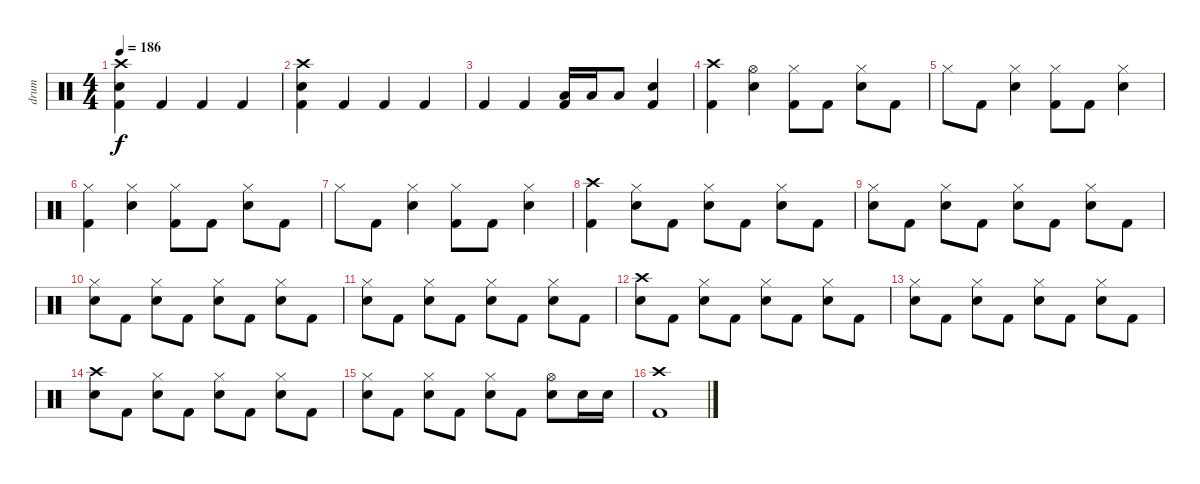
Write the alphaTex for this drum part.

\track ("drum" "drum") {instrument percussion}
\staff {score}
\articulation defaults
\ts (4 4)
\tempo 186
\clef neutral
\ks c
("Crash high (hit)" "Snare (hit) 2" "Kick (hit) 2").4{dy f} "Kick (hit) 2".4 "Kick (hit) 2".4 "Kick (hit) 2".4 |
("Crash high (hit)" "Snare (hit) 2" "Kick (hit) 2").4 "Kick (hit) 2".4 "Kick (hit) 2".4 "Kick (hit) 2".4 |
"Kick (hit) 2".4 "Kick (hit) 2".4 ("Low Floor Tom (hit)" "Kick (hit) 2").16 "Low Floor Tom (hit)".16 "Low Floor Tom (hit)".8 ("Snare (hit) 2" "Kick (hit) 2").4 |
("Crash high (hit)" "Kick (hit) 2").4 ("Hi-Hat (open)" "Snare (hit) 2").4 ("Hi-Hat (closed)" "Kick (hit) 2").8 "Kick (hit) 2".8 ("Hi-Hat (closed)" "Snare (hit) 2").8 "Kick (hit) 2".8 |
"Hi-Hat (closed)".8 "Kick (hit) 2".8 ("Hi-Hat (closed)" "Snare (hit) 2").4 ("Hi-Hat (closed)" "Kick (hit) 2").8 "Kick (hit) 2".8 ("Hi-Hat (closed)" "Snare (hit) 2").4 |
("Hi-Hat (closed)" "Kick (hit) 2").4 ("Hi-Hat (closed)" "Snare (hit) 2").4 ("Hi-Hat (closed)" "Kick (hit) 2").8 "Kick (hit) 2".8 ("Hi-Hat (closed)" "Snare (hit) 2").8 "Kick (hit) 2".8 |
"Hi-Hat (closed)".8 "Kick (hit) 2".8 ("Hi-Hat (closed)" "Snare (hit) 2").4 ("Hi-Hat (closed)" "Kick (hit) 2").8 "Kick (hit) 2".8 ("Hi-Hat (closed)" "Snare (hit) 2").4 |
("Crash high (hit)" "Kick (hit) 2").4 ("Hi-Hat (closed)" "Snare (hit) 2").8 "Kick (hit) 2".8 ("Hi-Hat (closed)" "Snare (hit) 2").8 "Kick (hit) 2".8 ("Hi-Hat (closed)" "Snare (hit) 2").8 "Kick (hit) 2".8 |
("Hi-Hat (closed)" "Snare (hit) 2").8 "Kick (hit) 2".8 ("Hi-Hat (closed)" "Snare (hit) 2").8 "Kick (hit) 2".8 ("Hi-Hat (closed)" "Snare (hit) 2").8 "Kick (hit) 2".8 ("Hi-Hat (closed)" "Snare (hit) 2").8 "Kick (hit) 2".8 |
("Hi-Hat (closed)" "Snare (hit) 2").8 "Kick (hit) 2".8 ("Hi-Hat (closed)" "Snare (hit) 2").8 "Kick (hit) 2".8 ("Hi-Hat (closed)" "Snare (hit) 2").8 "Kick (hit) 2".8 ("Hi-Hat (closed)" "Snare (hit) 2").8 "Kick (hit) 2".8 |
("Hi-Hat (closed)" "Snare (hit) 2").8 "Kick (hit) 2".8 ("Hi-Hat (closed)" "Snare (hit) 2").8 "Kick (hit) 2".8 ("Hi-Hat (closed)" "Snare (hit) 2").8 "Kick (hit) 2".8 ("Hi-Hat (closed)" "Snare (hit) 2").8 "Kick (hit) 2".8 |
("Crash high (hit)" "Snare (hit) 2").8 "Kick (hit) 2".8 ("Hi-Hat (closed)" "Snare (hit) 2").8 "Kick (hit) 2".8 ("Hi-Hat (closed)" "Snare (hit) 2").8 "Kick (hit) 2".8 ("Hi-Hat (closed)" "Snare (hit) 2").8 "Kick (hit) 2".8 |
("Hi-Hat (closed)" "Snare (hit) 2").8 "Kick (hit) 2".8 ("Hi-Hat (closed)" "Snare (hit) 2").8 "Kick (hit) 2".8 ("Hi-Hat (closed)" "Snare (hit) 2").8 "Kick (hit) 2".8 ("Hi-Hat (closed)" "Snare (hit) 2").8 "Kick (hit) 2".8 |
("Crash high (hit)" "Snare (hit) 2").8 "Kick (hit) 2".8 ("Hi-Hat (closed)" "Snare (hit) 2").8 "Kick (hit) 2".8 ("Hi-Hat (closed)" "Snare (hit) 2").8 "Kick (hit) 2".8 ("Hi-Hat (closed)" "Snare (hit) 2").8 "Kick (hit) 2".8 |
("Hi-Hat (closed)" "Snare (hit) 2").8 "Kick (hit) 2".8 ("Hi-Hat (closed)" "Snare (hit) 2").8 "Kick (hit) 2".8 ("Hi-Hat (closed)" "Snare (hit) 2").8 "Kick (hit) 2".8 ("Hi-Hat (open)" "Snare (hit) 2").8 "Snare (hit) 2".16 "Snare (hit) 2".16 |
("Crash high (hit)" "Kick (hit) 2").1
